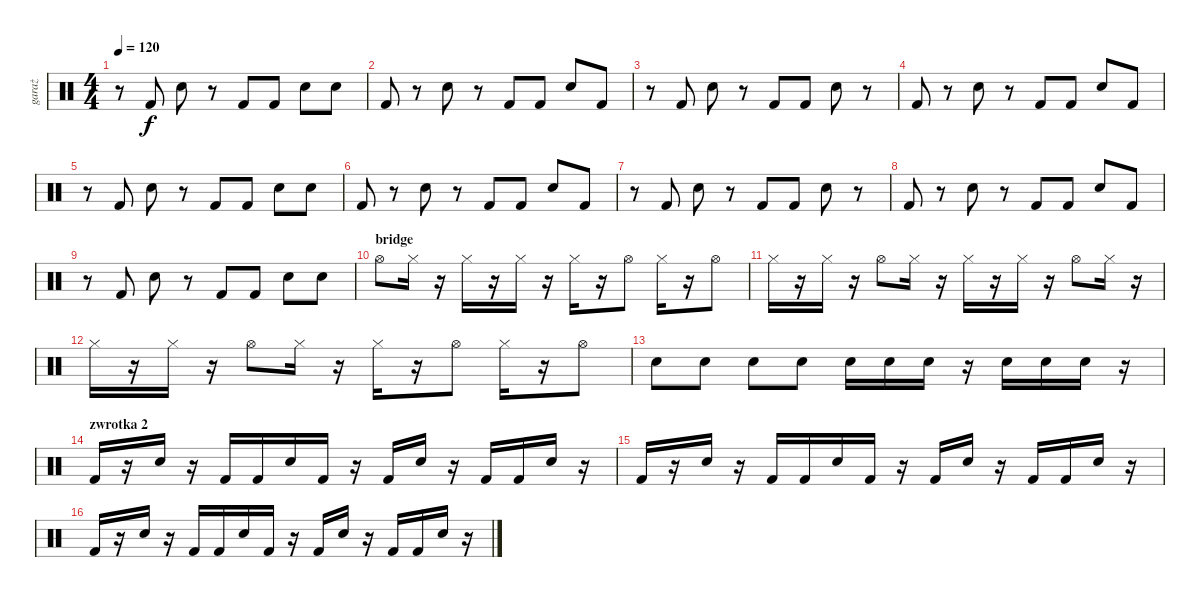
\track ("garaż" "garaż") {instrument percussion}
\staff {score}
\articulation defaults
\ts (4 4)
\tempo 120
\clef neutral
\ks c
r.8{dy f} "Kick (hit) 2".8 "Snare (hit) 2".8 r.8 "Kick (hit) 2".8 "Kick (hit) 2".8 "Snare (hit) 2".8 "Snare (hit) 2".8 |
"Kick (hit) 2".8 r.8 "Snare (hit) 2".8 r.8 "Kick (hit) 2".8 "Kick (hit) 2".8 "Snare (hit) 2".8 "Kick (hit) 2".8 |
r.8 "Kick (hit) 2".8 "Snare (hit) 2".8 r.8 "Kick (hit) 2".8 "Kick (hit) 2".8 "Snare (hit) 2".8 r.8 |
"Kick (hit) 2".8 r.8 "Snare (hit) 2".8 r.8 "Kick (hit) 2".8 "Kick (hit) 2".8 "Snare (hit) 2".8 "Kick (hit) 2".8 |
r.8 "Kick (hit) 2".8 "Snare (hit) 2".8 r.8 "Kick (hit) 2".8 "Kick (hit) 2".8 "Snare (hit) 2".8 "Snare (hit) 2".8 |
"Kick (hit) 2".8 r.8 "Snare (hit) 2".8 r.8 "Kick (hit) 2".8 "Kick (hit) 2".8 "Snare (hit) 2".8 "Kick (hit) 2".8 |
r.8 "Kick (hit) 2".8 "Snare (hit) 2".8 r.8 "Kick (hit) 2".8 "Kick (hit) 2".8 "Snare (hit) 2".8 r.8 |
"Kick (hit) 2".8 r.8 "Snare (hit) 2".8 r.8 "Kick (hit) 2".8 "Kick (hit) 2".8 "Snare (hit) 2".8 "Kick (hit) 2".8 |
r.8 "Kick (hit) 2".8 "Snare (hit) 2".8 r.8 "Kick (hit) 2".8 "Kick (hit) 2".8 "Snare (hit) 2".8 "Snare (hit) 2".8 |
\section ("" "bridge")
"Hi-Hat (open)".8 "Hi-Hat (closed)".16 r.16 "Hi-Hat (closed)".16 r.16 "Hi-Hat (closed)".16 r.16 "Hi-Hat (closed)".16 r.16 "Hi-Hat (open)".8 "Hi-Hat (closed)".16 r.16 "Hi-Hat (open)".8 |
"Hi-Hat (closed)".16 r.16 "Hi-Hat (closed)".16 r.16 "Hi-Hat (open)".8 "Hi-Hat (closed)".16 r.16 "Hi-Hat (closed)".16 r.16 "Hi-Hat (closed)".16 r.16 "Hi-Hat (open)".8 "Hi-Hat (closed)".16 r.16 |
"Hi-Hat (closed)".16 r.16 "Hi-Hat (closed)".16 r.16 "Hi-Hat (open)".8 "Hi-Hat (closed)".16 r.16 "Hi-Hat (closed)".16 r.16 "Hi-Hat (open)".8 "Hi-Hat (closed)".16 r.16 "Hi-Hat (open)".8 |
"Snare (hit) 2".8 "Snare (hit) 2".8 "Snare (hit) 2".8 "Snare (hit) 2".8 "Snare (hit) 2".16 "Snare (hit) 2".16 "Snare (hit) 2".16 r.16 "Snare (hit) 2".16 "Snare (hit) 2".16 "Snare (hit) 2".16 r.16 |
\section ("" "zwrotka 2")
"Kick (hit) 2".16 r.16 "Snare (hit) 2".16 r.16 "Kick (hit) 2".16 "Kick (hit) 2".16 "Snare (hit) 2".16 "Kick (hit) 2".16 r.16 "Kick (hit) 2".16 "Snare (hit) 2".16 r.16 "Kick (hit) 2".16 "Kick (hit) 2".16 "Snare (hit) 2".16 r.16 |
"Kick (hit) 2".16 r.16 "Snare (hit) 2".16 r.16 "Kick (hit) 2".16 "Kick (hit) 2".16 "Snare (hit) 2".16 "Kick (hit) 2".16 r.16 "Kick (hit) 2".16 "Snare (hit) 2".16 r.16 "Kick (hit) 2".16 "Kick (hit) 2".16 "Snare (hit) 2".16 r.16 |
"Kick (hit) 2".16 r.16 "Snare (hit) 2".16 r.16 "Kick (hit) 2".16 "Kick (hit) 2".16 "Snare (hit) 2".16 "Kick (hit) 2".16 r.16 "Kick (hit) 2".16 "Snare (hit) 2".16 r.16 "Kick (hit) 2".16 "Kick (hit) 2".16 "Snare (hit) 2".16 r.16
